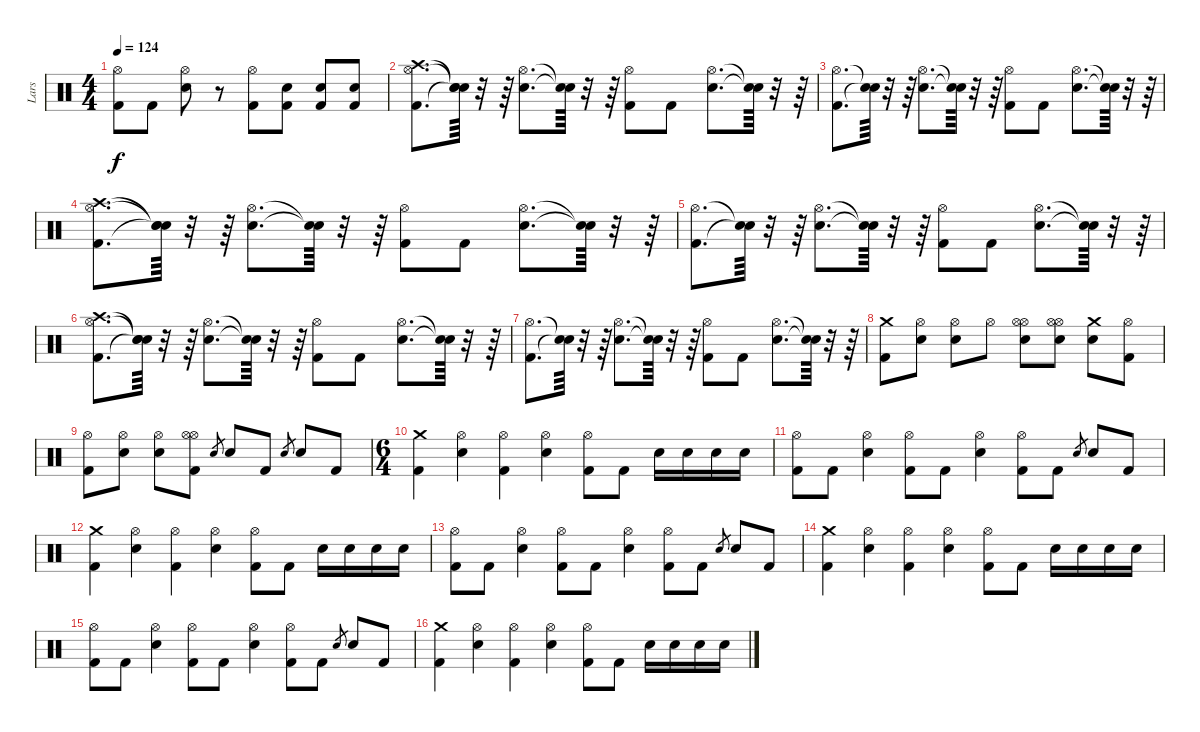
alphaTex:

\track ("Lars" "Lars") {instrument percussion}
\staff {score}
\articulation defaults
\ts (4 4)
\tempo 124
\clef neutral
\ks c
("Kick (hit) 2" "Hi-Hat (open)").8{dy f} "Kick (hit) 2".8 ("Snare (hit) 2" "Hi-Hat (open)").8 r.8 ("Kick (hit) 2" "Hi-Hat (open)").8 ("Kick (hit) 2" "Snare (hit) 2").8 ("Kick (hit) 2" "Snare (hit) 2").8 ("Kick (hit) 2" "Snare (hit) 2").8 |
("Kick (hit) 2" "Hi-Hat (open)" "Crash high (hit)").8{d} ("Snare (hit)"{t} "Snare (hit)"{t} "Snare (hit)"{t}).64 r.32 r.64 ("Snare (hit) 2" "Hi-Hat (open)").8{d} ("Snare (hit)"{t} "Snare (hit)"{t}).64 r.32 r.64 ("Kick (hit) 2" "Hi-Hat (open)").8 "Kick (hit) 2".8 ("Snare (hit) 2" "Hi-Hat (open)").8{d} ("Snare (hit)"{t} "Snare (hit)"{t}).64 r.32 r.64 |
("Kick (hit) 2" "Hi-Hat (open)").8{d} ("Snare (hit)"{t} "Snare (hit)"{t}).64 r.32 r.64 ("Snare (hit) 2" "Hi-Hat (open)").8{d} ("Snare (hit)"{t} "Snare (hit)"{t}).64 r.32 r.64 ("Kick (hit) 2" "Hi-Hat (open)").8 "Kick (hit) 2".8 ("Snare (hit) 2" "Hi-Hat (open)").8{d} ("Snare (hit)"{t} "Snare (hit)"{t}).64 r.32 r.64 |
("Kick (hit) 2" "Hi-Hat (open)" "Crash high (hit)").8{d} ("Snare (hit)"{t} "Snare (hit)"{t} "Snare (hit)"{t}).64 r.32 r.64 ("Snare (hit) 2" "Hi-Hat (open)").8{d} ("Snare (hit)"{t} "Snare (hit)"{t}).64 r.32 r.64 ("Kick (hit) 2" "Hi-Hat (open)").8 "Kick (hit) 2".8 ("Snare (hit) 2" "Hi-Hat (open)").8{d} ("Snare (hit)"{t} "Snare (hit)"{t}).64 r.32 r.64 |
("Kick (hit) 2" "Hi-Hat (open)").8{d} ("Snare (hit)"{t} "Snare (hit)"{t}).64 r.32 r.64 ("Snare (hit) 2" "Hi-Hat (open)").8{d} ("Snare (hit)"{t} "Snare (hit)"{t}).64 r.32 r.64 ("Kick (hit) 2" "Hi-Hat (open)").8 "Kick (hit) 2".8 ("Snare (hit) 2" "Hi-Hat (open)").8{d} ("Snare (hit)"{t} "Snare (hit)"{t}).64 r.32 r.64 |
("Kick (hit) 2" "Hi-Hat (open)" "Crash high (hit)").8{d} ("Snare (hit)"{t} "Snare (hit)"{t} "Snare (hit)"{t}).64 r.32 r.64 ("Snare (hit) 2" "Hi-Hat (open)").8{d} ("Snare (hit)"{t} "Snare (hit)"{t}).64 r.32 r.64 ("Kick (hit) 2" "Hi-Hat (open)").8 "Kick (hit) 2".8 ("Snare (hit) 2" "Hi-Hat (open)").8{d} ("Snare (hit)"{t} "Snare (hit)"{t}).64 r.32 r.64 |
("Kick (hit) 2" "Hi-Hat (open)").8{d} ("Snare (hit)"{t} "Snare (hit)"{t}).64 r.32 r.64 ("Snare (hit) 2" "Hi-Hat (open)").8{d} ("Snare (hit)"{t} "Snare (hit)"{t}).64 r.32 r.64 ("Kick (hit) 2" "Hi-Hat (open)").8 "Kick (hit) 2".8 ("Snare (hit) 2" "Hi-Hat (open)").8{d} ("Snare (hit)"{t} "Snare (hit)"{t}).64 r.32 r.64 |
("Kick (hit) 2" "Crash medium (hit)").8 ("Snare (hit) 2" "Hi-Hat (open)").8 ("Snare (hit) 2" "Hi-Hat (open)").8 "Hi-Hat (open)".8 ("Snare (hit) 2" "Hi-Hat (open)" "Hi-Hat (open)").8 ("Snare (hit) 2" "Hi-Hat (open)" "Hi-Hat (open)").8 ("Snare (hit) 2" "Crash medium (hit)").8 ("Kick (hit) 2" "Hi-Hat (open)").8 |
("Kick (hit) 2" "Hi-Hat (open)").8 ("Snare (hit) 2" "Hi-Hat (open)").8 ("Snare (hit) 2" "Hi-Hat (open)").8 ("Kick (hit) 2" "Hi-Hat (open)" "Hi-Hat (open)").8 "Snare (hit) 2".8{gr} "Snare (hit) 2".8 "Kick (hit) 2".8 "Snare (hit) 2".8{gr} "Snare (hit) 2".8 "Kick (hit) 2".8 |
\ts (6 4)
("Kick (hit) 2" "Crash medium (hit)").4 ("Snare (hit) 2" "Hi-Hat (open)").4 ("Kick (hit) 2" "Hi-Hat (open)").4 ("Snare (hit) 2" "Hi-Hat (open)").4 ("Kick (hit) 2" "Hi-Hat (open)").8 "Kick (hit) 2".8 "Snare (hit) 2".16 "Snare (hit) 2".16 "Snare (hit) 2".16 "Snare (hit) 2".16 |
("Kick (hit) 2" "Hi-Hat (open)").8 "Kick (hit) 2".8 ("Snare (hit) 2" "Hi-Hat (open)").4 ("Kick (hit) 2" "Hi-Hat (open)").8 "Kick (hit) 2".8 ("Snare (hit) 2" "Hi-Hat (open)").4 ("Kick (hit) 2" "Hi-Hat (open)").8 "Kick (hit) 2".8 "Snare (hit) 2".8{gr} "Snare (hit) 2".8 "Kick (hit) 2".8 |
("Kick (hit) 2" "Crash medium (hit)").4 ("Snare (hit) 2" "Hi-Hat (open)").4 ("Kick (hit) 2" "Hi-Hat (open)").4 ("Snare (hit) 2" "Hi-Hat (open)").4 ("Kick (hit) 2" "Hi-Hat (open)").8 "Kick (hit) 2".8 "Snare (hit) 2".16 "Snare (hit) 2".16 "Snare (hit) 2".16 "Snare (hit) 2".16 |
("Kick (hit) 2" "Hi-Hat (open)").8 "Kick (hit) 2".8 ("Snare (hit) 2" "Hi-Hat (open)").4 ("Kick (hit) 2" "Hi-Hat (open)").8 "Kick (hit) 2".8 ("Snare (hit) 2" "Hi-Hat (open)").4 ("Kick (hit) 2" "Hi-Hat (open)").8 "Kick (hit) 2".8 "Snare (hit) 2".8{gr} "Snare (hit) 2".8 "Kick (hit) 2".8 |
("Kick (hit) 2" "Crash medium (hit)").4 ("Snare (hit) 2" "Hi-Hat (open)").4 ("Kick (hit) 2" "Hi-Hat (open)").4 ("Snare (hit) 2" "Hi-Hat (open)").4 ("Kick (hit) 2" "Hi-Hat (open)").8 "Kick (hit) 2".8 "Snare (hit) 2".16 "Snare (hit) 2".16 "Snare (hit) 2".16 "Snare (hit) 2".16 |
("Kick (hit) 2" "Hi-Hat (open)").8 "Kick (hit) 2".8 ("Snare (hit) 2" "Hi-Hat (open)").4 ("Kick (hit) 2" "Hi-Hat (open)").8 "Kick (hit) 2".8 ("Snare (hit) 2" "Hi-Hat (open)").4 ("Kick (hit) 2" "Hi-Hat (open)").8 "Kick (hit) 2".8 "Snare (hit) 2".8{gr} "Snare (hit) 2".8 "Kick (hit) 2".8 |
("Kick (hit) 2" "Crash medium (hit)").4 ("Snare (hit) 2" "Hi-Hat (open)").4 ("Kick (hit) 2" "Hi-Hat (open)").4 ("Snare (hit) 2" "Hi-Hat (open)").4 ("Kick (hit) 2" "Hi-Hat (open)").8 "Kick (hit) 2".8 "Snare (hit) 2".16 "Snare (hit) 2".16 "Snare (hit) 2".16 "Snare (hit) 2".16
